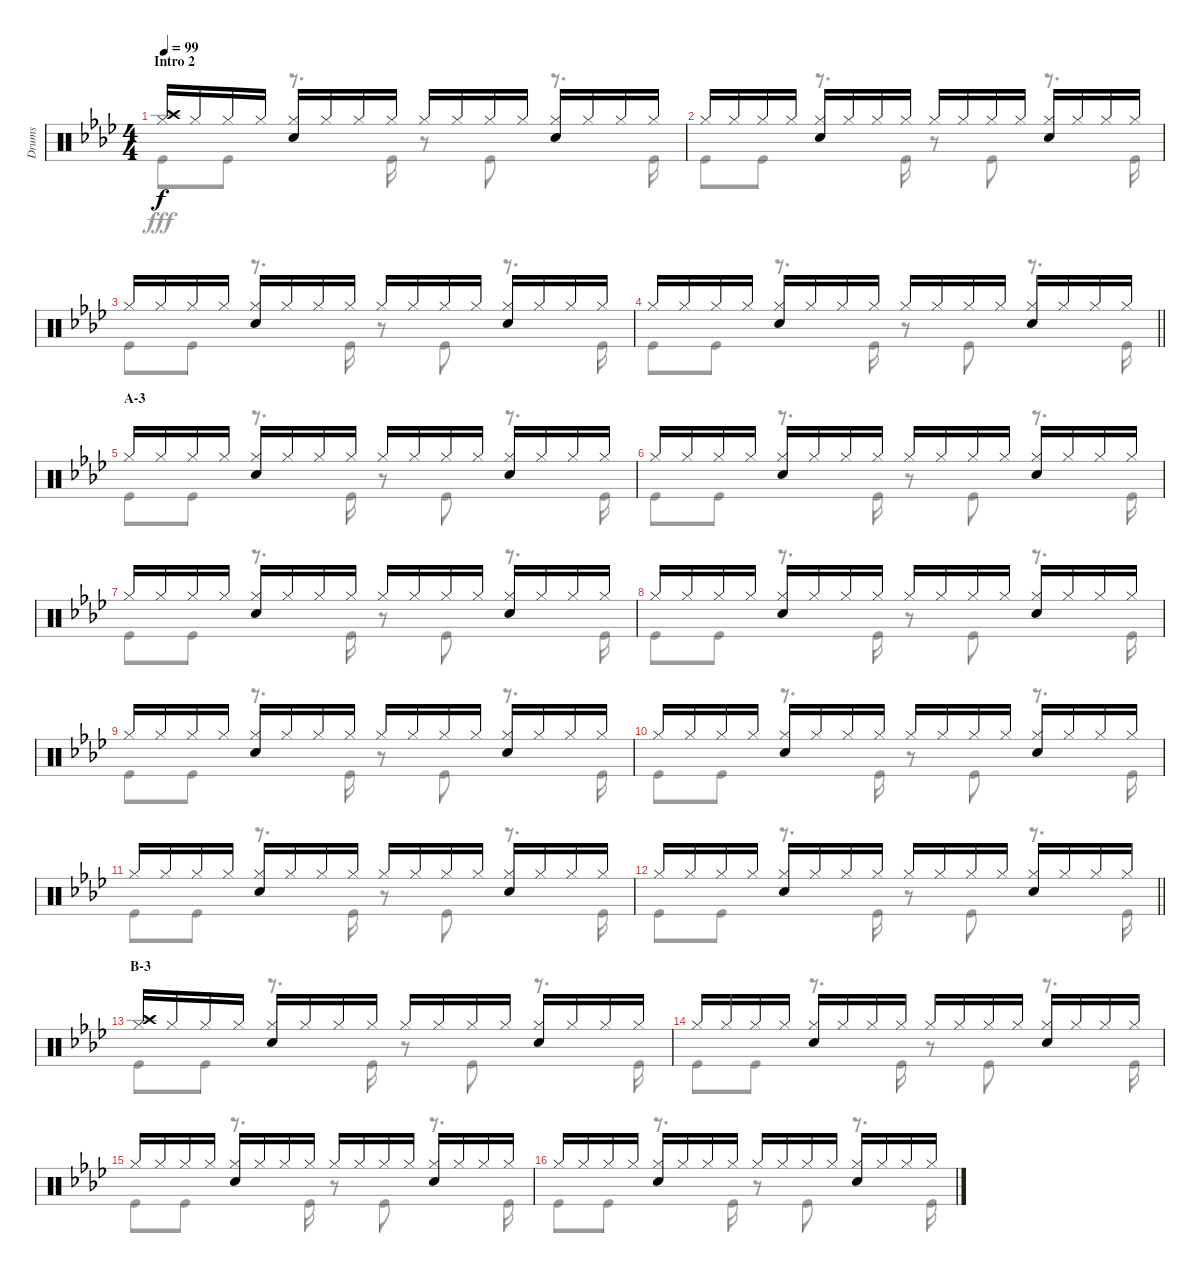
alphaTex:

\track ("Drums" "Drums") {instrument percussion}
\staff {score}
\articulation defaults
\voice
\ts (4 4)
\section ("" "Intro 2")
\tempo 99
\clef neutral
\ks ab
("Crash high (hit)" "Hi-Hat (closed)").16{dy f} "Hi-Hat (closed)".16 "Hi-Hat (closed)".16 "Hi-Hat (closed)".16 ("Hi-Hat (closed)" "Snare (hit) 2").16 "Hi-Hat (closed)".16 "Hi-Hat (closed)".16 "Hi-Hat (closed)".16 "Hi-Hat (closed)".16 "Hi-Hat (closed)".16 "Hi-Hat (closed)".16 "Hi-Hat (closed)".16 ("Hi-Hat (closed)" "Snare (hit) 2").16 "Hi-Hat (closed)".16 "Hi-Hat (closed)".16 "Hi-Hat (closed)".16 |
"Hi-Hat (closed)".16 "Hi-Hat (closed)".16 "Hi-Hat (closed)".16 "Hi-Hat (closed)".16 ("Hi-Hat (closed)" "Snare (hit) 2").16 "Hi-Hat (closed)".16 "Hi-Hat (closed)".16 "Hi-Hat (closed)".16 "Hi-Hat (closed)".16 "Hi-Hat (closed)".16 "Hi-Hat (closed)".16 "Hi-Hat (closed)".16 ("Hi-Hat (closed)" "Snare (hit) 2").16 "Hi-Hat (closed)".16 "Hi-Hat (closed)".16 "Hi-Hat (closed)".16 |
"Hi-Hat (closed)".16 "Hi-Hat (closed)".16 "Hi-Hat (closed)".16 "Hi-Hat (closed)".16 ("Hi-Hat (closed)" "Snare (hit) 2").16 "Hi-Hat (closed)".16 "Hi-Hat (closed)".16 "Hi-Hat (closed)".16 "Hi-Hat (closed)".16 "Hi-Hat (closed)".16 "Hi-Hat (closed)".16 "Hi-Hat (closed)".16 ("Hi-Hat (closed)" "Snare (hit) 2").16 "Hi-Hat (closed)".16 "Hi-Hat (closed)".16 "Hi-Hat (closed)".16 |
\barLineRight lightlight "Hi-Hat (closed)".16 "Hi-Hat (closed)".16 "Hi-Hat (closed)".16 "Hi-Hat (closed)".16
("Hi-Hat (closed)" "Snare (hit) 2").16 "Hi-Hat (closed)".16 "Hi-Hat (closed)".16 "Hi-Hat (closed)".16 "Hi-Hat (closed)".16 "Hi-Hat (closed)".16 "Hi-Hat (closed)".16 "Hi-Hat (closed)".16 ("Hi-Hat (closed)" "Snare (hit) 2").16 "Hi-Hat (closed)".16 "Hi-Hat (closed)".16 "Hi-Hat (closed)".16 |
\section ("" "A-3")
"Hi-Hat (closed)".16 "Hi-Hat (closed)".16 "Hi-Hat (closed)".16 "Hi-Hat (closed)".16 ("Hi-Hat (closed)" "Snare (hit) 2").16 "Hi-Hat (closed)".16 "Hi-Hat (closed)".16 "Hi-Hat (closed)".16 "Hi-Hat (closed)".16 "Hi-Hat (closed)".16 "Hi-Hat (closed)".16 "Hi-Hat (closed)".16 ("Hi-Hat (closed)" "Snare (hit) 2").16 "Hi-Hat (closed)".16 "Hi-Hat (closed)".16 "Hi-Hat (closed)".16 |
"Hi-Hat (closed)".16 "Hi-Hat (closed)".16 "Hi-Hat (closed)".16 "Hi-Hat (closed)".16 ("Hi-Hat (closed)" "Snare (hit) 2").16 "Hi-Hat (closed)".16 "Hi-Hat (closed)".16 "Hi-Hat (closed)".16 "Hi-Hat (closed)".16 "Hi-Hat (closed)".16 "Hi-Hat (closed)".16 "Hi-Hat (closed)".16 ("Hi-Hat (closed)" "Snare (hit) 2").16 "Hi-Hat (closed)".16 "Hi-Hat (closed)".16 "Hi-Hat (closed)".16 |
"Hi-Hat (closed)".16 "Hi-Hat (closed)".16 "Hi-Hat (closed)".16 "Hi-Hat (closed)".16 ("Hi-Hat (closed)" "Snare (hit) 2").16 "Hi-Hat (closed)".16 "Hi-Hat (closed)".16 "Hi-Hat (closed)".16 "Hi-Hat (closed)".16 "Hi-Hat (closed)".16 "Hi-Hat (closed)".16 "Hi-Hat (closed)".16 ("Hi-Hat (closed)" "Snare (hit) 2").16 "Hi-Hat (closed)".16 "Hi-Hat (closed)".16 "Hi-Hat (closed)".16 |
"Hi-Hat (closed)".16 "Hi-Hat (closed)".16 "Hi-Hat (closed)".16 "Hi-Hat (closed)".16 ("Hi-Hat (closed)" "Snare (hit) 2").16 "Hi-Hat (closed)".16 "Hi-Hat (closed)".16 "Hi-Hat (closed)".16 "Hi-Hat (closed)".16 "Hi-Hat (closed)".16 "Hi-Hat (closed)".16 "Hi-Hat (closed)".16 ("Hi-Hat (closed)" "Snare (hit) 2").16 "Hi-Hat (closed)".16 "Hi-Hat (closed)".16 "Hi-Hat (closed)".16 |
"Hi-Hat (closed)".16 "Hi-Hat (closed)".16 "Hi-Hat (closed)".16 "Hi-Hat (closed)".16 ("Hi-Hat (closed)" "Snare (hit) 2").16 "Hi-Hat (closed)".16 "Hi-Hat (closed)".16 "Hi-Hat (closed)".16 "Hi-Hat (closed)".16 "Hi-Hat (closed)".16 "Hi-Hat (closed)".16 "Hi-Hat (closed)".16 ("Hi-Hat (closed)" "Snare (hit) 2").16 "Hi-Hat (closed)".16 "Hi-Hat (closed)".16 "Hi-Hat (closed)".16 |
"Hi-Hat (closed)".16 "Hi-Hat (closed)".16 "Hi-Hat (closed)".16 "Hi-Hat (closed)".16 ("Hi-Hat (closed)" "Snare (hit) 2").16 "Hi-Hat (closed)".16 "Hi-Hat (closed)".16 "Hi-Hat (closed)".16 "Hi-Hat (closed)".16 "Hi-Hat (closed)".16 "Hi-Hat (closed)".16 "Hi-Hat (closed)".16 ("Hi-Hat (closed)" "Snare (hit) 2").16 "Hi-Hat (closed)".16 "Hi-Hat (closed)".16 "Hi-Hat (closed)".16 |
"Hi-Hat (closed)".16 "Hi-Hat (closed)".16 "Hi-Hat (closed)".16 "Hi-Hat (closed)".16 ("Hi-Hat (closed)" "Snare (hit) 2").16 "Hi-Hat (closed)".16 "Hi-Hat (closed)".16 "Hi-Hat (closed)".16 "Hi-Hat (closed)".16 "Hi-Hat (closed)".16 "Hi-Hat (closed)".16 "Hi-Hat (closed)".16 ("Hi-Hat (closed)" "Snare (hit) 2").16 "Hi-Hat (closed)".16 "Hi-Hat (closed)".16 "Hi-Hat (closed)".16 |
\barLineRight lightlight "Hi-Hat (closed)".16 "Hi-Hat (closed)".16 "Hi-Hat (closed)".16 "Hi-Hat (closed)".16
("Hi-Hat (closed)" "Snare (hit) 2").16 "Hi-Hat (closed)".16 "Hi-Hat (closed)".16 "Hi-Hat (closed)".16 "Hi-Hat (closed)".16 "Hi-Hat (closed)".16 "Hi-Hat (closed)".16 "Hi-Hat (closed)".16 ("Hi-Hat (closed)" "Snare (hit) 2").16 "Hi-Hat (closed)".16 "Hi-Hat (closed)".16 "Hi-Hat (closed)".16 |
\section ("" "B-3")
("Crash high (hit)" "Hi-Hat (closed)").16 "Hi-Hat (closed)".16 "Hi-Hat (closed)".16 "Hi-Hat (closed)".16 ("Hi-Hat (closed)" "Snare (hit) 2").16 "Hi-Hat (closed)".16 "Hi-Hat (closed)".16 "Hi-Hat (closed)".16 "Hi-Hat (closed)".16 "Hi-Hat (closed)".16 "Hi-Hat (closed)".16 "Hi-Hat (closed)".16 ("Hi-Hat (closed)" "Snare (hit) 2").16 "Hi-Hat (closed)".16 "Hi-Hat (closed)".16 "Hi-Hat (closed)".16 |
"Hi-Hat (closed)".16 "Hi-Hat (closed)".16 "Hi-Hat (closed)".16 "Hi-Hat (closed)".16 ("Hi-Hat (closed)" "Snare (hit) 2").16 "Hi-Hat (closed)".16 "Hi-Hat (closed)".16 "Hi-Hat (closed)".16 "Hi-Hat (closed)".16 "Hi-Hat (closed)".16 "Hi-Hat (closed)".16 "Hi-Hat (closed)".16 ("Hi-Hat (closed)" "Snare (hit) 2").16 "Hi-Hat (closed)".16 "Hi-Hat (closed)".16 "Hi-Hat (closed)".16 |
"Hi-Hat (closed)".16 "Hi-Hat (closed)".16 "Hi-Hat (closed)".16 "Hi-Hat (closed)".16 ("Hi-Hat (closed)" "Snare (hit) 2").16 "Hi-Hat (closed)".16 "Hi-Hat (closed)".16 "Hi-Hat (closed)".16 "Hi-Hat (closed)".16 "Hi-Hat (closed)".16 "Hi-Hat (closed)".16 "Hi-Hat (closed)".16 ("Hi-Hat (closed)" "Snare (hit) 2").16 "Hi-Hat (closed)".16 "Hi-Hat (closed)".16 "Hi-Hat (closed)".16 |
"Hi-Hat (closed)".16 "Hi-Hat (closed)".16 "Hi-Hat (closed)".16 "Hi-Hat (closed)".16 ("Hi-Hat (closed)" "Snare (hit) 2").16 "Hi-Hat (closed)".16 "Hi-Hat (closed)".16 "Hi-Hat (closed)".16 "Hi-Hat (closed)".16 "Hi-Hat (closed)".16 "Hi-Hat (closed)".16 "Hi-Hat (closed)".16 ("Hi-Hat (closed)" "Snare (hit) 2").16 "Hi-Hat (closed)".16 "Hi-Hat (closed)".16 "Hi-Hat (closed)".16
\voice
\clef neutral
\ottava regular
\simile none
\ks ab "Kick (hit)".8{dy fff} "Kick (hit)".8
r.8{d} "Kick (hit)".16 r.8 "Kick (hit)".8 r.8{d} "Kick (hit)".16 |
"Kick (hit)".8 "Kick (hit)".8 r.8{d} "Kick (hit)".16 r.8 "Kick (hit)".8 r.8{d} "Kick (hit)".16 |
"Kick (hit)".8 "Kick (hit)".8 r.8{d} "Kick (hit)".16 r.8 "Kick (hit)".8 r.8{d} "Kick (hit)".16 |
\barLineRight lightlight "Kick (hit)".8 "Kick (hit)".8
r.8{d} "Kick (hit)".16 r.8 "Kick (hit)".8 r.8{d} "Kick (hit)".16 |
"Kick (hit)".8 "Kick (hit)".8 r.8{d} "Kick (hit)".16 r.8 "Kick (hit)".8 r.8{d} "Kick (hit)".16 |
"Kick (hit)".8 "Kick (hit)".8 r.8{d} "Kick (hit)".16 r.8 "Kick (hit)".8 r.8{d} "Kick (hit)".16 |
"Kick (hit)".8 "Kick (hit)".8 r.8{d} "Kick (hit)".16 r.8 "Kick (hit)".8 r.8{d} "Kick (hit)".16 |
"Kick (hit)".8 "Kick (hit)".8 r.8{d} "Kick (hit)".16 r.8 "Kick (hit)".8 r.8{d} "Kick (hit)".16 |
"Kick (hit)".8 "Kick (hit)".8 r.8{d} "Kick (hit)".16 r.8 "Kick (hit)".8 r.8{d} "Kick (hit)".16 |
"Kick (hit)".8 "Kick (hit)".8 r.8{d} "Kick (hit)".16 r.8 "Kick (hit)".8 r.8{d} "Kick (hit)".16 |
"Kick (hit)".8 "Kick (hit)".8 r.8{d} "Kick (hit)".16 r.8 "Kick (hit)".8 r.8{d} "Kick (hit)".16 |
\barLineRight lightlight "Kick (hit)".8 "Kick (hit)".8
r.8{d} "Kick (hit)".16 r.8 "Kick (hit)".8 r.8{d} "Kick (hit)".16 |
"Kick (hit)".8 "Kick (hit)".8 r.8{d} "Kick (hit)".16 r.8 "Kick (hit)".8 r.8{d} "Kick (hit)".16 |
"Kick (hit)".8 "Kick (hit)".8 r.8{d} "Kick (hit)".16 r.8 "Kick (hit)".8 r.8{d} "Kick (hit)".16 |
"Kick (hit)".8 "Kick (hit)".8 r.8{d} "Kick (hit)".16 r.8 "Kick (hit)".8 r.8{d} "Kick (hit)".16 |
"Kick (hit)".8 "Kick (hit)".8 r.8{d} "Kick (hit)".16 r.8 "Kick (hit)".8 r.8{d} "Kick (hit)".16
